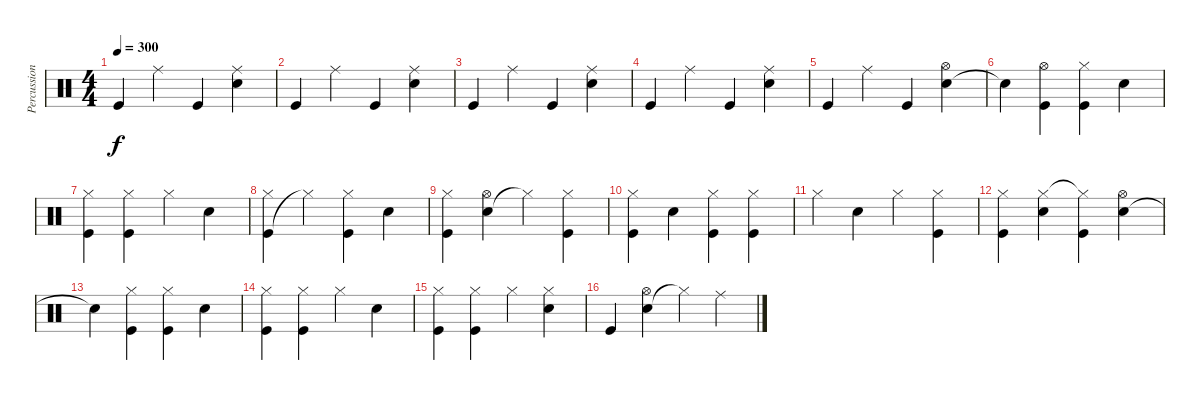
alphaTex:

\track ("Percussion" "Percussion") {instrument percussion}
\staff {score}
\articulation defaults
\ts (4 4)
\tempo 300
\clef neutral
\ks c "Kick (hit)".4{dy f} "Ride (middle)".4 "Kick (hit)".4
("Electric Snare (hit)" "Ride (middle)").4 |
"Kick (hit)".4 "Ride (middle)".4 "Kick (hit)".4 ("Electric Snare (hit)" "Ride (middle)").4 |
"Kick (hit)".4 "Ride (middle)".4 "Kick (hit)".4 ("Electric Snare (hit)" "Ride (middle)").4 |
"Kick (hit)".4 "Ride (middle)".4 "Kick (hit)".4 ("Electric Snare (hit)" "Ride (middle)").4 |
"Kick (hit)".4 "Ride (middle)".4 "Kick (hit)".4 ("Electric Snare (hit)" "Hi-Hat (open)").4 |
"Snare (hit)"{t}.4 ("Kick (hit)" "Hi-Hat (open)").4 ("Kick (hit)" "Hi-Hat (closed)").4 "Electric Snare (hit)".4 |
("Kick (hit)" "Hi-Hat (closed)").4 ("Kick (hit)" "Hi-Hat (closed)").4 "Hi-Hat (closed)".4 "Electric Snare (hit)".4 |
("Kick (hit)" "Hi-Hat (closed)").4 "Hi-Hat (closed)"{t}.4 ("Kick (hit)" "Hi-Hat (closed)").4 "Electric Snare (hit)".4 |
("Kick (hit)" "Hi-Hat (closed)").4 ("Electric Snare (hit)" "Hi-Hat (open)").4 "Hi-Hat (closed)"{t}.4 ("Kick (hit)" "Hi-Hat (closed)").4 |
("Kick (hit)" "Hi-Hat (closed)").4 "Electric Snare (hit)".4 ("Kick (hit)" "Hi-Hat (closed)").4 ("Kick (hit)" "Hi-Hat (closed)").4 |
"Hi-Hat (closed)".4 "Electric Snare (hit)".4 "Hi-Hat (closed)".4 ("Kick (hit)" "Hi-Hat (closed)").4 |
("Kick (hit)" "Hi-Hat (closed)").4 ("Electric Snare (hit)" "Hi-Hat (closed)").4 ("Kick (hit)" "Hi-Hat (closed)"{t}).4 ("Electric Snare (hit)" "Hi-Hat (open)").4 |
"Snare (hit)"{t}.4 ("Kick (hit)" "Hi-Hat (closed)").4 ("Kick (hit)" "Hi-Hat (closed)").4 "Electric Snare (hit)".4 |
("Kick (hit)" "Hi-Hat (closed)").4 ("Kick (hit)" "Hi-Hat (closed)").4 "Hi-Hat (closed)".4 "Electric Snare (hit)".4 |
("Kick (hit)" "Hi-Hat (closed)").4 ("Kick (hit)" "Hi-Hat (closed)").4 "Hi-Hat (closed)".4 ("Electric Snare (hit)" "Hi-Hat (closed)").4 |
"Kick (hit)".4 ("Electric Snare (hit)" "Hi-Hat (open)").4 "Hi-Hat (closed)"{t}.4 "Ride (middle)".4
